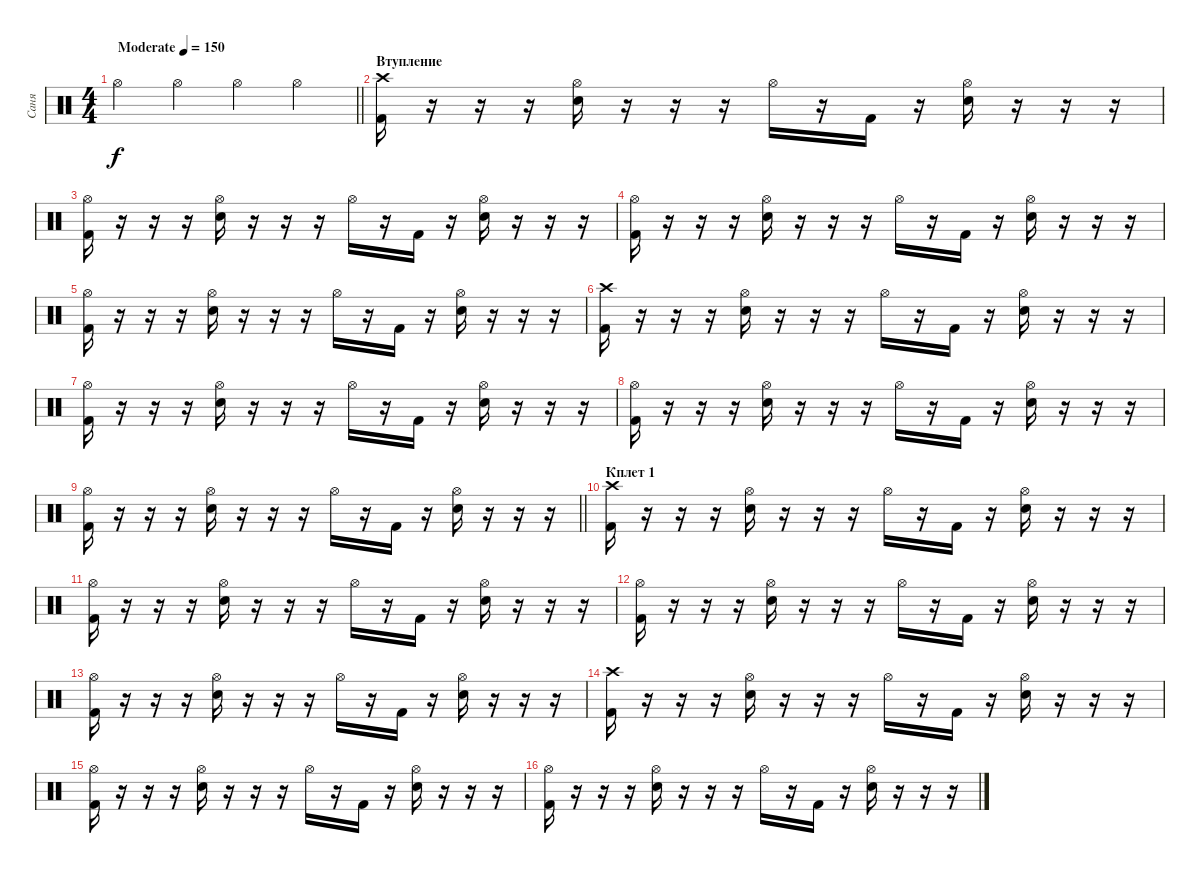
\track ("Саня" "Саня") {instrument percussion}
\staff {score}
\articulation defaults
\ts (4 4)
\tempo (150 "Moderate")
\clef neutral
\barLineRight lightlight
\ks c "Hi-Hat (open)".4{dy f} "Hi-Hat (open)".4 "Hi-Hat (open)".4 "Hi-Hat (open)".4
|
\section ("" "Втупление")
("Kick (hit) 2" "Crash high (hit)").16 r.16 r.16 r.16 ("Snare (hit) 2" "Hi-Hat (open)").16 r.16 r.16 r.16 "Hi-Hat (open)".16 r.16 "Kick (hit) 2".16 r.16 ("Snare (hit) 2" "Hi-Hat (open)").16 r.16 r.16 r.16 |
("Kick (hit) 2" "Hi-Hat (open)").16 r.16 r.16 r.16 ("Snare (hit) 2" "Hi-Hat (open)").16 r.16 r.16 r.16 "Hi-Hat (open)".16 r.16 "Kick (hit) 2".16 r.16 ("Snare (hit) 2" "Hi-Hat (open)").16 r.16 r.16 r.16 |
("Kick (hit) 2" "Hi-Hat (open)").16 r.16 r.16 r.16 ("Snare (hit) 2" "Hi-Hat (open)").16 r.16 r.16 r.16 "Hi-Hat (open)".16 r.16 "Kick (hit) 2".16 r.16 ("Snare (hit) 2" "Hi-Hat (open)").16 r.16 r.16 r.16 |
("Kick (hit) 2" "Hi-Hat (open)").16 r.16 r.16 r.16 ("Snare (hit) 2" "Hi-Hat (open)").16 r.16 r.16 r.16 "Hi-Hat (open)".16 r.16 "Kick (hit) 2".16 r.16 ("Snare (hit) 2" "Hi-Hat (open)").16 r.16 r.16 r.16 |
("Kick (hit) 2" "Crash high (hit)").16 r.16 r.16 r.16 ("Snare (hit) 2" "Hi-Hat (open)").16 r.16 r.16 r.16 "Hi-Hat (open)".16 r.16 "Kick (hit) 2".16 r.16 ("Snare (hit) 2" "Hi-Hat (open)").16 r.16 r.16 r.16 |
("Kick (hit) 2" "Hi-Hat (open)").16 r.16 r.16 r.16 ("Snare (hit) 2" "Hi-Hat (open)").16 r.16 r.16 r.16 "Hi-Hat (open)".16 r.16 "Kick (hit) 2".16 r.16 ("Snare (hit) 2" "Hi-Hat (open)").16 r.16 r.16 r.16 |
("Kick (hit) 2" "Hi-Hat (open)").16 r.16 r.16 r.16 ("Snare (hit) 2" "Hi-Hat (open)").16 r.16 r.16 r.16 "Hi-Hat (open)".16 r.16 "Kick (hit) 2".16 r.16 ("Snare (hit) 2" "Hi-Hat (open)").16 r.16 r.16 r.16 |
\barLineRight lightlight
("Kick (hit) 2" "Hi-Hat (open)").16 r.16 r.16 r.16 ("Snare (hit) 2" "Hi-Hat (open)").16 r.16 r.16 r.16 "Hi-Hat (open)".16 r.16 "Kick (hit) 2".16 r.16 ("Snare (hit) 2" "Hi-Hat (open)").16 r.16 r.16 r.16 |
\section ("" "Кплет 1")
("Kick (hit) 2" "Crash high (hit)").16 r.16 r.16 r.16 ("Snare (hit) 2" "Hi-Hat (open)").16 r.16 r.16 r.16 "Hi-Hat (open)".16 r.16 "Kick (hit) 2".16 r.16 ("Snare (hit) 2" "Hi-Hat (open)").16 r.16 r.16 r.16 |
("Kick (hit) 2" "Hi-Hat (open)").16 r.16 r.16 r.16 ("Snare (hit) 2" "Hi-Hat (open)").16 r.16 r.16 r.16 "Hi-Hat (open)".16 r.16 "Kick (hit) 2".16 r.16 ("Snare (hit) 2" "Hi-Hat (open)").16 r.16 r.16 r.16 |
("Kick (hit) 2" "Hi-Hat (open)").16 r.16 r.16 r.16 ("Snare (hit) 2" "Hi-Hat (open)").16 r.16 r.16 r.16 "Hi-Hat (open)".16 r.16 "Kick (hit) 2".16 r.16 ("Snare (hit) 2" "Hi-Hat (open)").16 r.16 r.16 r.16 |
("Kick (hit) 2" "Hi-Hat (open)").16 r.16 r.16 r.16 ("Snare (hit) 2" "Hi-Hat (open)").16 r.16 r.16 r.16 "Hi-Hat (open)".16 r.16 "Kick (hit) 2".16 r.16 ("Snare (hit) 2" "Hi-Hat (open)").16 r.16 r.16 r.16 |
("Kick (hit) 2" "Crash high (hit)").16 r.16 r.16 r.16 ("Snare (hit) 2" "Hi-Hat (open)").16 r.16 r.16 r.16 "Hi-Hat (open)".16 r.16 "Kick (hit) 2".16 r.16 ("Snare (hit) 2" "Hi-Hat (open)").16 r.16 r.16 r.16 |
("Kick (hit) 2" "Hi-Hat (open)").16 r.16 r.16 r.16 ("Snare (hit) 2" "Hi-Hat (open)").16 r.16 r.16 r.16 "Hi-Hat (open)".16 r.16 "Kick (hit) 2".16 r.16 ("Snare (hit) 2" "Hi-Hat (open)").16 r.16 r.16 r.16 |
("Kick (hit) 2" "Hi-Hat (open)").16 r.16 r.16 r.16 ("Snare (hit) 2" "Hi-Hat (open)").16 r.16 r.16 r.16 "Hi-Hat (open)".16 r.16 "Kick (hit) 2".16 r.16 ("Snare (hit) 2" "Hi-Hat (open)").16 r.16 r.16 r.16
